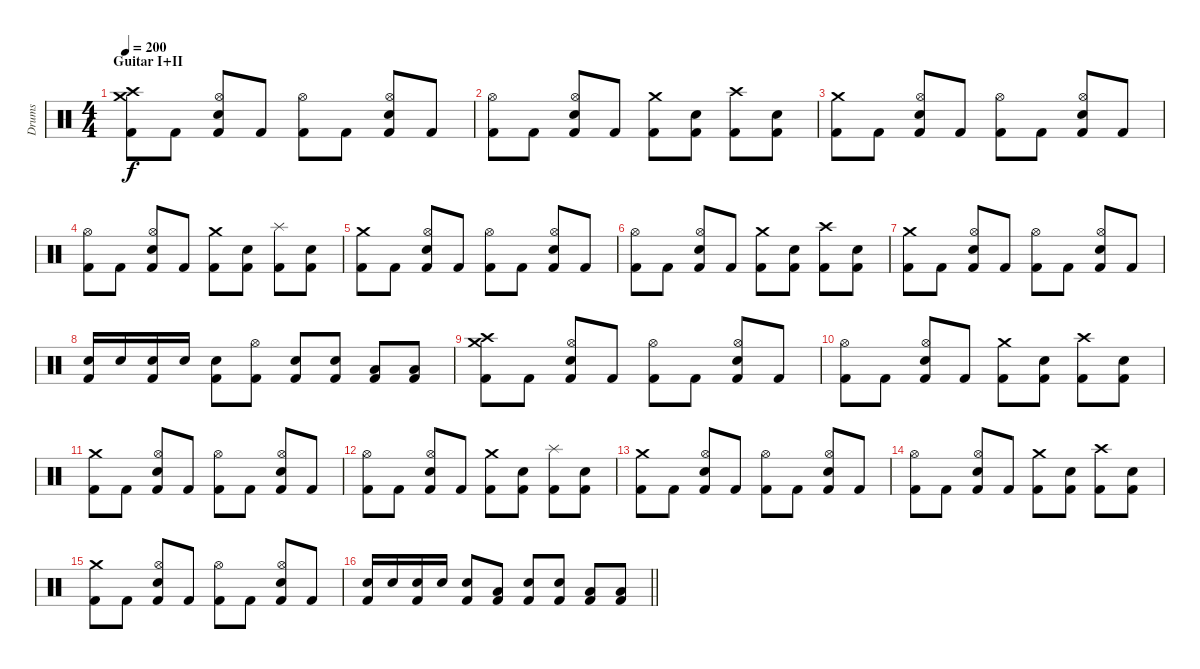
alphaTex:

\track ("Drums" "Drums") {instrument percussion}
\staff {score}
\articulation defaults
\ts (4 4)
\section ("" "Guitar I+II")
\tempo 200
\clef neutral
\ks c
("Crash medium (hit)" "Crash high (hit)" "Kick (hit) 2").8{dy f} "Kick (hit) 2".8 ("Hi-Hat (open)" "Electric Snare (hit)" "Kick (hit) 2").8 "Kick (hit) 2".8 ("Hi-Hat (open)" "Kick (hit) 2").8 "Kick (hit) 2".8 ("Hi-Hat (open)" "Electric Snare (hit)" "Kick (hit) 2").8 "Kick (hit) 2".8 |
("Hi-Hat (open)" "Kick (hit) 2").8 "Kick (hit) 2".8 ("Hi-Hat (open)" "Electric Snare (hit)" "Kick (hit) 2").8 "Kick (hit) 2".8 ("Crash medium (hit)" "Kick (hit) 2").8 ("Electric Snare (hit)" "Kick (hit) 2").8 ("Crash high (hit)" "Kick (hit) 2").8 ("Electric Snare (hit)" "Kick (hit) 2").8 |
("Crash medium (hit)" "Kick (hit) 2").8 "Kick (hit) 2".8 ("Hi-Hat (open)" "Electric Snare (hit)" "Kick (hit) 2").8 "Kick (hit) 2".8 ("Hi-Hat (open)" "Kick (hit) 2").8 "Kick (hit) 2".8 ("Hi-Hat (open)" "Electric Snare (hit)" "Kick (hit) 2").8 "Kick (hit) 2".8 |
("Hi-Hat (open)" "Kick (hit) 2").8 "Kick (hit) 2".8 ("Hi-Hat (open)" "Electric Snare (hit)" "Kick (hit) 2").8 "Kick (hit) 2".8 ("Crash medium (hit)" "Kick (hit) 2").8 ("Electric Snare (hit)" "Kick (hit) 2").8 ("Splash (hit)" "Kick (hit) 2").8 ("Electric Snare (hit)" "Kick (hit) 2").8 |
("Crash medium (hit)" "Kick (hit) 2").8 "Kick (hit) 2".8 ("Hi-Hat (open)" "Electric Snare (hit)" "Kick (hit) 2").8 "Kick (hit) 2".8 ("Hi-Hat (open)" "Kick (hit) 2").8 "Kick (hit) 2".8 ("Hi-Hat (open)" "Electric Snare (hit)" "Kick (hit) 2").8 "Kick (hit) 2".8 |
("Hi-Hat (open)" "Kick (hit) 2").8 "Kick (hit) 2".8 ("Hi-Hat (open)" "Electric Snare (hit)" "Kick (hit) 2").8 "Kick (hit) 2".8 ("Crash medium (hit)" "Kick (hit) 2").8 ("Electric Snare (hit)" "Kick (hit) 2").8 ("Crash high (hit)" "Kick (hit) 2").8 ("Electric Snare (hit)" "Kick (hit) 2").8 |
("Crash medium (hit)" "Kick (hit) 2").8 "Kick (hit) 2".8 ("Hi-Hat (open)" "Electric Snare (hit)" "Kick (hit) 2").8 "Kick (hit) 2".8 ("Hi-Hat (open)" "Kick (hit) 2").8 "Kick (hit) 2".8 ("Hi-Hat (open)" "Electric Snare (hit)" "Kick (hit) 2").8 "Kick (hit) 2".8 |
("Electric Snare (hit)" "Kick (hit) 2").16 "Electric Snare (hit)".16 ("Electric Snare (hit)" "Kick (hit) 2").16 "Electric Snare (hit)".16 ("Electric Snare (hit)" "Kick (hit) 2").8 ("Hi-Hat (open)" "Kick (hit) 2").8 ("Electric Snare (hit)" "Kick (hit) 2").8 ("Electric Snare (hit)" "Kick (hit) 2").8 ("Low Tom (hit)" "Kick (hit) 2").8 ("Low Tom (hit)" "Kick (hit) 2").8 |
("Crash medium (hit)" "Crash high (hit)" "Kick (hit) 2").8 "Kick (hit) 2".8 ("Hi-Hat (open)" "Electric Snare (hit)" "Kick (hit) 2").8 "Kick (hit) 2".8 ("Hi-Hat (open)" "Kick (hit) 2").8 "Kick (hit) 2".8 ("Hi-Hat (open)" "Electric Snare (hit)" "Kick (hit) 2").8 "Kick (hit) 2".8 |
("Hi-Hat (open)" "Kick (hit) 2").8 "Kick (hit) 2".8 ("Hi-Hat (open)" "Electric Snare (hit)" "Kick (hit) 2").8 "Kick (hit) 2".8 ("Crash medium (hit)" "Kick (hit) 2").8 ("Electric Snare (hit)" "Kick (hit) 2").8 ("Crash high (hit)" "Kick (hit) 2").8 ("Electric Snare (hit)" "Kick (hit) 2").8 |
("Crash medium (hit)" "Kick (hit) 2").8 "Kick (hit) 2".8 ("Hi-Hat (open)" "Electric Snare (hit)" "Kick (hit) 2").8 "Kick (hit) 2".8 ("Hi-Hat (open)" "Kick (hit) 2").8 "Kick (hit) 2".8 ("Hi-Hat (open)" "Electric Snare (hit)" "Kick (hit) 2").8 "Kick (hit) 2".8 |
("Hi-Hat (open)" "Kick (hit) 2").8 "Kick (hit) 2".8 ("Hi-Hat (open)" "Electric Snare (hit)" "Kick (hit) 2").8 "Kick (hit) 2".8 ("Crash medium (hit)" "Kick (hit) 2").8 ("Electric Snare (hit)" "Kick (hit) 2").8 ("Splash (hit)" "Kick (hit) 2").8 ("Electric Snare (hit)" "Kick (hit) 2").8 |
("Crash medium (hit)" "Kick (hit) 2").8 "Kick (hit) 2".8 ("Hi-Hat (open)" "Electric Snare (hit)" "Kick (hit) 2").8 "Kick (hit) 2".8 ("Hi-Hat (open)" "Kick (hit) 2").8 "Kick (hit) 2".8 ("Hi-Hat (open)" "Electric Snare (hit)" "Kick (hit) 2").8 "Kick (hit) 2".8 |
("Hi-Hat (open)" "Kick (hit) 2").8 "Kick (hit) 2".8 ("Hi-Hat (open)" "Electric Snare (hit)" "Kick (hit) 2").8 "Kick (hit) 2".8 ("Crash medium (hit)" "Kick (hit) 2").8 ("Electric Snare (hit)" "Kick (hit) 2").8 ("Crash high (hit)" "Kick (hit) 2").8 ("Electric Snare (hit)" "Kick (hit) 2").8 |
("Crash medium (hit)" "Kick (hit) 2").8 "Kick (hit) 2".8 ("Hi-Hat (open)" "Electric Snare (hit)" "Kick (hit) 2").8 "Kick (hit) 2".8 ("Hi-Hat (open)" "Kick (hit) 2").8 "Kick (hit) 2".8 ("Hi-Hat (open)" "Electric Snare (hit)" "Kick (hit) 2").8 "Kick (hit) 2".8 |
\barLineRight lightlight
("Electric Snare (hit)" "Kick (hit) 2").16 "Electric Snare (hit)".16 ("Electric Snare (hit)" "Kick (hit) 2").16 "Electric Snare (hit)".16 ("Electric Snare (hit)" "Kick (hit) 2").8 ("Low Tom (hit)" "Kick (hit) 2").8 ("Electric Snare (hit)" "Kick (hit) 2").8 ("Electric Snare (hit)" "Kick (hit) 2").8 ("Low Tom (hit)" "Kick (hit) 2").8 ("Low Tom (hit)" "Kick (hit) 2").8
